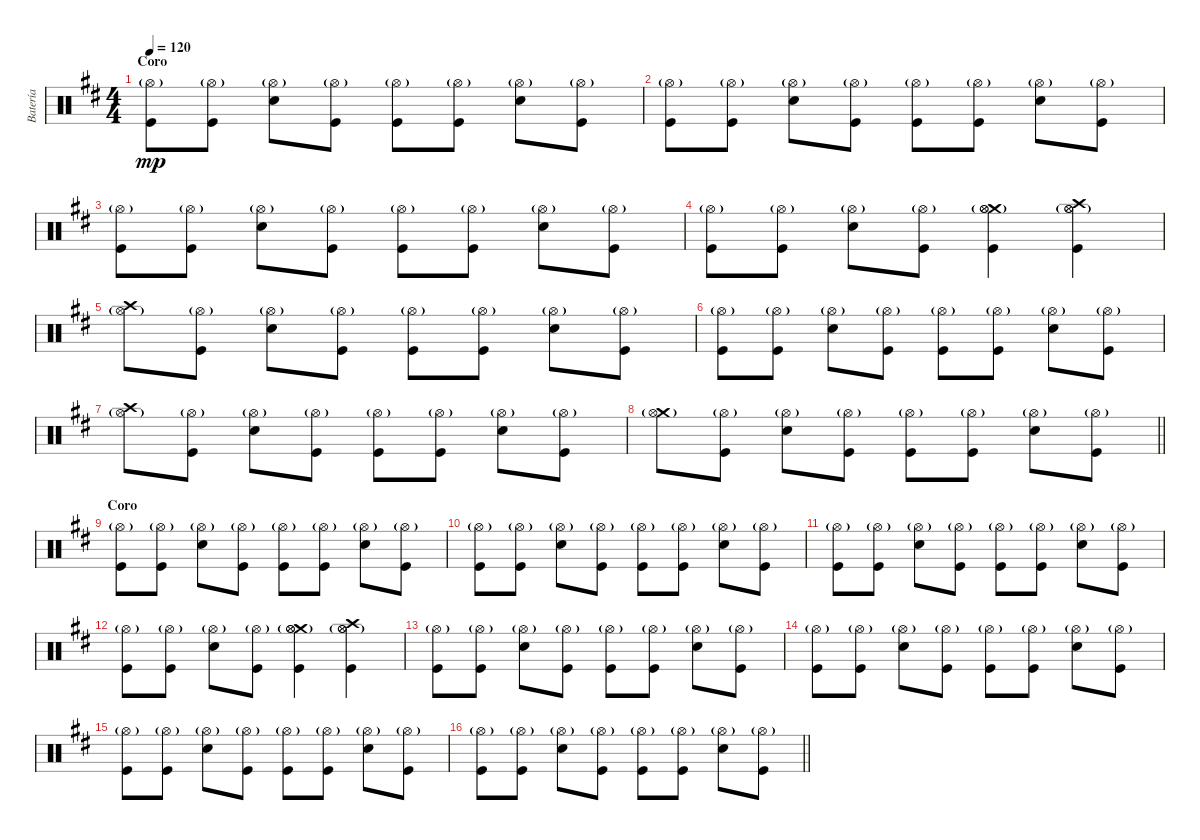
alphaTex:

\track ("Batería" "Batería") {instrument percussion}
\staff {score}
\articulation defaults
\ts (4 4)
\section ("" "Coro")
\tempo 120
\clef neutral
\ks d
("Kick (hit)" "Hi-Hat (open)"{g}).8{dy mp} ("Kick (hit)" "Hi-Hat (open)"{g}).8 ("Electric Snare (hit)" "Hi-Hat (open)"{g}).8 ("Kick (hit)" "Hi-Hat (open)"{g}).8 ("Kick (hit)" "Hi-Hat (open)"{g}).8 ("Kick (hit)" "Hi-Hat (open)"{g}).8 ("Electric Snare (hit)" "Hi-Hat (open)"{g}).8 ("Kick (hit)" "Hi-Hat (open)"{g}).8 |
("Kick (hit)" "Hi-Hat (open)"{g}).8 ("Kick (hit)" "Hi-Hat (open)"{g}).8 ("Electric Snare (hit)" "Hi-Hat (open)"{g}).8 ("Kick (hit)" "Hi-Hat (open)"{g}).8 ("Kick (hit)" "Hi-Hat (open)"{g}).8 ("Kick (hit)" "Hi-Hat (open)"{g}).8 ("Electric Snare (hit)" "Hi-Hat (open)"{g}).8 ("Kick (hit)" "Hi-Hat (open)"{g}).8 |
("Kick (hit)" "Hi-Hat (open)"{g}).8 ("Kick (hit)" "Hi-Hat (open)"{g}).8 ("Electric Snare (hit)" "Hi-Hat (open)"{g}).8 ("Kick (hit)" "Hi-Hat (open)"{g}).8 ("Kick (hit)" "Hi-Hat (open)"{g}).8 ("Kick (hit)" "Hi-Hat (open)"{g}).8 ("Electric Snare (hit)" "Hi-Hat (open)"{g}).8 ("Kick (hit)" "Hi-Hat (open)"{g}).8 |
("Kick (hit)" "Hi-Hat (open)"{g}).8 ("Kick (hit)" "Hi-Hat (open)"{g}).8 ("Electric Snare (hit)" "Hi-Hat (open)"{g}).8 ("Kick (hit)" "Hi-Hat (open)"{g}).8 ("Crash medium (hit)" "Hi-Hat (open)" "Kick (hit)" "Hi-Hat (open)"{g}).4 ("Crash high (hit)" "Hi-Hat (open)" "Kick (hit)" "Hi-Hat (open)"{g}).4 |
("Crash high (hit)" "Hi-Hat (open)"{g}).8 ("Kick (hit)" "Hi-Hat (open)"{g}).8 ("Electric Snare (hit)" "Hi-Hat (open)"{g}).8 ("Kick (hit)" "Hi-Hat (open)"{g}).8 ("Kick (hit)" "Hi-Hat (open)"{g}).8 ("Kick (hit)" "Hi-Hat (open)"{g}).8 ("Electric Snare (hit)" "Hi-Hat (open)"{g}).8 ("Kick (hit)" "Hi-Hat (open)"{g}).8 |
("Kick (hit)" "Hi-Hat (open)"{g}).8 ("Kick (hit)" "Hi-Hat (open)"{g}).8 ("Electric Snare (hit)" "Hi-Hat (open)"{g}).8 ("Kick (hit)" "Hi-Hat (open)"{g}).8 ("Kick (hit)" "Hi-Hat (open)"{g}).8 ("Kick (hit)" "Hi-Hat (open)"{g}).8 ("Electric Snare (hit)" "Hi-Hat (open)"{g}).8 ("Kick (hit)" "Hi-Hat (open)"{g}).8 |
("Crash high (hit)" "Hi-Hat (open)"{g}).8 ("Kick (hit)" "Hi-Hat (open)"{g}).8 ("Electric Snare (hit)" "Hi-Hat (open)"{g}).8 ("Kick (hit)" "Hi-Hat (open)"{g}).8 ("Kick (hit)" "Hi-Hat (open)"{g}).8 ("Kick (hit)" "Hi-Hat (open)"{g}).8 ("Electric Snare (hit)" "Hi-Hat (open)"{g}).8 ("Kick (hit)" "Hi-Hat (open)"{g}).8 |
\barLineRight lightlight
("Crash medium (hit)" "Hi-Hat (open)"{g}).8 ("Kick (hit)" "Hi-Hat (open)"{g}).8 ("Electric Snare (hit)" "Hi-Hat (open)"{g}).8 ("Kick (hit)" "Hi-Hat (open)"{g}).8 ("Kick (hit)" "Hi-Hat (open)"{g}).8 ("Kick (hit)" "Hi-Hat (open)"{g}).8 ("Electric Snare (hit)" "Hi-Hat (open)"{g}).8 ("Kick (hit)" "Hi-Hat (open)"{g}).8 |
\section ("" "Coro")
("Kick (hit)" "Hi-Hat (open)"{g}).8 ("Kick (hit)" "Hi-Hat (open)"{g}).8 ("Electric Snare (hit)" "Hi-Hat (open)"{g}).8 ("Kick (hit)" "Hi-Hat (open)"{g}).8 ("Kick (hit)" "Hi-Hat (open)"{g}).8 ("Kick (hit)" "Hi-Hat (open)"{g}).8 ("Electric Snare (hit)" "Hi-Hat (open)"{g}).8 ("Kick (hit)" "Hi-Hat (open)"{g}).8 |
("Kick (hit)" "Hi-Hat (open)"{g}).8 ("Kick (hit)" "Hi-Hat (open)"{g}).8 ("Electric Snare (hit)" "Hi-Hat (open)"{g}).8 ("Kick (hit)" "Hi-Hat (open)"{g}).8 ("Kick (hit)" "Hi-Hat (open)"{g}).8 ("Kick (hit)" "Hi-Hat (open)"{g}).8 ("Electric Snare (hit)" "Hi-Hat (open)"{g}).8 ("Kick (hit)" "Hi-Hat (open)"{g}).8 |
("Kick (hit)" "Hi-Hat (open)"{g}).8 ("Kick (hit)" "Hi-Hat (open)"{g}).8 ("Electric Snare (hit)" "Hi-Hat (open)"{g}).8 ("Kick (hit)" "Hi-Hat (open)"{g}).8 ("Kick (hit)" "Hi-Hat (open)"{g}).8 ("Kick (hit)" "Hi-Hat (open)"{g}).8 ("Electric Snare (hit)" "Hi-Hat (open)"{g}).8 ("Kick (hit)" "Hi-Hat (open)"{g}).8 |
("Kick (hit)" "Hi-Hat (open)"{g}).8 ("Kick (hit)" "Hi-Hat (open)"{g}).8 ("Electric Snare (hit)" "Hi-Hat (open)"{g}).8 ("Kick (hit)" "Hi-Hat (open)"{g}).8 ("Crash medium (hit)" "Hi-Hat (open)" "Kick (hit)" "Hi-Hat (open)"{g}).4 ("Crash high (hit)" "Hi-Hat (open)" "Kick (hit)" "Hi-Hat (open)"{g}).4 |
("Kick (hit)" "Hi-Hat (open)"{g}).8 ("Kick (hit)" "Hi-Hat (open)"{g}).8 ("Electric Snare (hit)" "Hi-Hat (open)"{g}).8 ("Kick (hit)" "Hi-Hat (open)"{g}).8 ("Kick (hit)" "Hi-Hat (open)"{g}).8 ("Kick (hit)" "Hi-Hat (open)"{g}).8 ("Electric Snare (hit)" "Hi-Hat (open)"{g}).8 ("Kick (hit)" "Hi-Hat (open)"{g}).8 |
("Kick (hit)" "Hi-Hat (open)"{g}).8 ("Kick (hit)" "Hi-Hat (open)"{g}).8 ("Electric Snare (hit)" "Hi-Hat (open)"{g}).8 ("Kick (hit)" "Hi-Hat (open)"{g}).8 ("Kick (hit)" "Hi-Hat (open)"{g}).8 ("Kick (hit)" "Hi-Hat (open)"{g}).8 ("Electric Snare (hit)" "Hi-Hat (open)"{g}).8 ("Kick (hit)" "Hi-Hat (open)"{g}).8 |
("Kick (hit)" "Hi-Hat (open)"{g}).8 ("Kick (hit)" "Hi-Hat (open)"{g}).8 ("Electric Snare (hit)" "Hi-Hat (open)"{g}).8 ("Kick (hit)" "Hi-Hat (open)"{g}).8 ("Kick (hit)" "Hi-Hat (open)"{g}).8 ("Kick (hit)" "Hi-Hat (open)"{g}).8 ("Electric Snare (hit)" "Hi-Hat (open)"{g}).8 ("Kick (hit)" "Hi-Hat (open)"{g}).8 |
\barLineRight lightlight
("Kick (hit)" "Hi-Hat (open)"{g}).8 ("Kick (hit)" "Hi-Hat (open)"{g}).8 ("Electric Snare (hit)" "Hi-Hat (open)"{g}).8 ("Kick (hit)" "Hi-Hat (open)"{g}).8 ("Kick (hit)" "Hi-Hat (open)"{g}).8 ("Kick (hit)" "Hi-Hat (open)"{g}).8 ("Electric Snare (hit)" "Hi-Hat (open)"{g}).8 ("Kick (hit)" "Hi-Hat (open)"{g}).8
